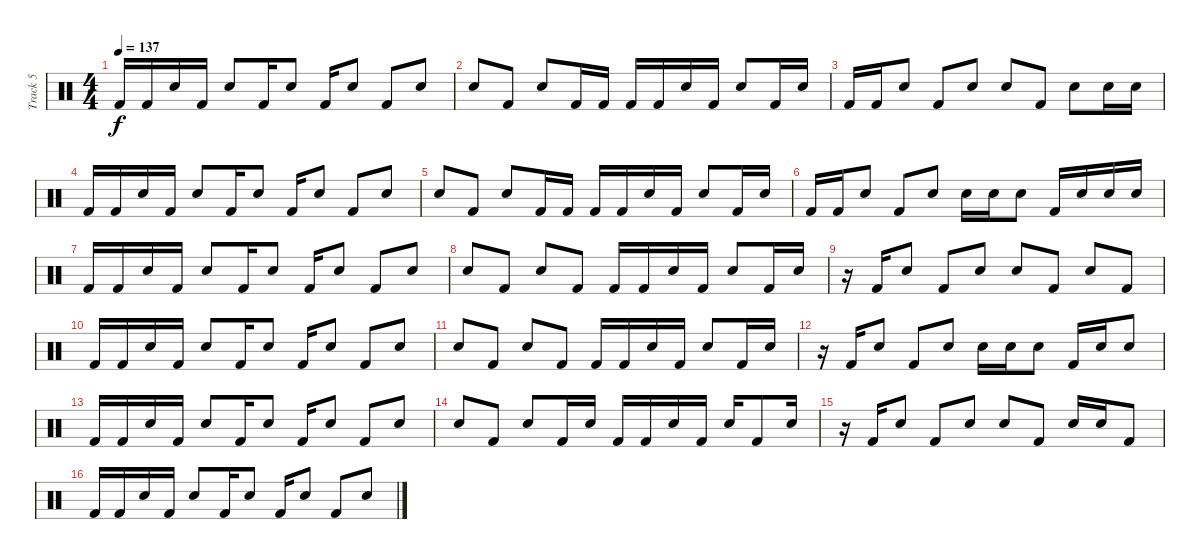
\track ("Track 5" "Track 5") {instrument percussion}
\staff {score}
\articulation defaults
\ts (4 4)
\tempo 137
\clef neutral
\ks c "Kick (hit) 2".16{dy f} "Kick (hit) 2".16 "Snare (hit) 2".16 "Kick (hit) 2".16 "Snare (hit) 2".8 "Kick (hit) 2".16 "Snare (hit) 2".8 "Kick (hit) 2".16 "Snare (hit) 2".8 "Kick (hit) 2".8 "Snare (hit) 2".8
|
"Snare (hit) 2".8 "Kick (hit) 2".8 "Snare (hit) 2".8 "Kick (hit) 2".16 "Kick (hit) 2".16 "Kick (hit) 2".16 "Kick (hit) 2".16 "Snare (hit) 2".16 "Kick (hit) 2".16 "Snare (hit) 2".8 "Kick (hit) 2".16 "Snare (hit) 2".16 |
"Kick (hit) 2".16 "Kick (hit) 2".16 "Snare (hit) 2".8 "Kick (hit) 2".8 "Snare (hit) 2".8 "Snare (hit) 2".8 "Kick (hit) 2".8 "Snare (hit) 2".8 "Snare (hit) 2".16 "Snare (hit) 2".16 |
"Kick (hit) 2".16 "Kick (hit) 2".16 "Snare (hit) 2".16 "Kick (hit) 2".16 "Snare (hit) 2".8 "Kick (hit) 2".16 "Snare (hit) 2".8 "Kick (hit) 2".16 "Snare (hit) 2".8 "Kick (hit) 2".8 "Snare (hit) 2".8 |
"Snare (hit) 2".8 "Kick (hit) 2".8 "Snare (hit) 2".8 "Kick (hit) 2".16 "Kick (hit) 2".16 "Kick (hit) 2".16 "Kick (hit) 2".16 "Snare (hit) 2".16 "Kick (hit) 2".16 "Snare (hit) 2".8 "Kick (hit) 2".16 "Snare (hit) 2".16 |
"Kick (hit) 2".16 "Kick (hit) 2".16 "Snare (hit) 2".8 "Kick (hit) 2".8 "Snare (hit) 2".8 "Snare (hit) 2".16 "Snare (hit) 2".16 "Snare (hit) 2".8 "Kick (hit) 2".16 "Snare (hit) 2".16 "Snare (hit) 2".16 "Snare (hit) 2".16 |
"Kick (hit) 2".16 "Kick (hit) 2".16 "Snare (hit) 2".16 "Kick (hit) 2".16 "Snare (hit) 2".8 "Kick (hit) 2".16 "Snare (hit) 2".8 "Kick (hit) 2".16 "Snare (hit) 2".8 "Kick (hit) 2".8 "Snare (hit) 2".8 |
"Snare (hit) 2".8 "Kick (hit) 2".8 "Snare (hit) 2".8 "Kick (hit) 2".8 "Kick (hit) 2".16 "Kick (hit) 2".16 "Snare (hit) 2".16 "Kick (hit) 2".16 "Snare (hit) 2".8 "Kick (hit) 2".16 "Snare (hit) 2".16 |
r.16 "Kick (hit) 2".16 "Snare (hit) 2".8 "Kick (hit) 2".8 "Snare (hit) 2".8 "Snare (hit) 2".8 "Kick (hit) 2".8 "Snare (hit) 2".8 "Kick (hit) 2".8 |
"Kick (hit) 2".16 "Kick (hit) 2".16 "Snare (hit) 2".16 "Kick (hit) 2".16 "Snare (hit) 2".8 "Kick (hit) 2".16 "Snare (hit) 2".8 "Kick (hit) 2".16 "Snare (hit) 2".8 "Kick (hit) 2".8 "Snare (hit) 2".8 |
"Snare (hit) 2".8 "Kick (hit) 2".8 "Snare (hit) 2".8 "Kick (hit) 2".8 "Kick (hit) 2".16 "Kick (hit) 2".16 "Snare (hit) 2".16 "Kick (hit) 2".16 "Snare (hit) 2".8 "Kick (hit) 2".16 "Snare (hit) 2".16 |
r.16 "Kick (hit) 2".16 "Snare (hit) 2".8 "Kick (hit) 2".8 "Snare (hit) 2".8 "Snare (hit) 2".16 "Snare (hit) 2".16 "Snare (hit) 2".8 "Kick (hit) 2".16 "Snare (hit) 2".16 "Snare (hit) 2".8 |
"Kick (hit) 2".16 "Kick (hit) 2".16 "Snare (hit) 2".16 "Kick (hit) 2".16 "Snare (hit) 2".8 "Kick (hit) 2".16 "Snare (hit) 2".8 "Kick (hit) 2".16 "Snare (hit) 2".8 "Kick (hit) 2".8 "Snare (hit) 2".8 |
"Snare (hit) 2".8 "Kick (hit) 2".8 "Snare (hit) 2".8 "Kick (hit) 2".16 "Snare (hit) 2".16 "Kick (hit) 2".16 "Kick (hit) 2".16 "Snare (hit) 2".16 "Kick (hit) 2".16 "Snare (hit) 2".16 "Kick (hit) 2".8 "Snare (hit) 2".16 |
r.16 "Kick (hit) 2".16 "Snare (hit) 2".8 "Kick (hit) 2".8 "Snare (hit) 2".8 "Snare (hit) 2".8 "Kick (hit) 2".8 "Snare (hit) 2".16 "Snare (hit) 2".16 "Kick (hit) 2".8 |
"Kick (hit) 2".16 "Kick (hit) 2".16 "Snare (hit) 2".16 "Kick (hit) 2".16 "Snare (hit) 2".8 "Kick (hit) 2".16 "Snare (hit) 2".8 "Kick (hit) 2".16 "Snare (hit) 2".8 "Kick (hit) 2".8 "Snare (hit) 2".8
